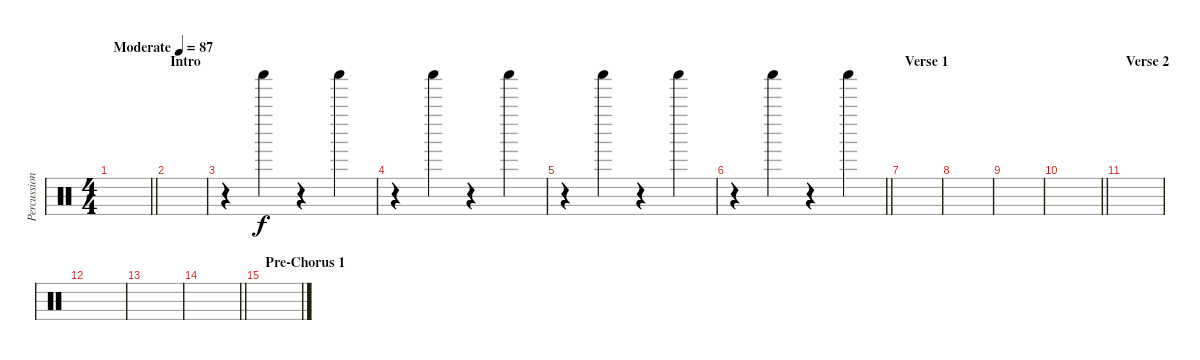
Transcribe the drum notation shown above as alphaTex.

\track ("Percussion" "Percussion") {instrument percussion}
\staff {score}
\articulation defaults
\ts (4 4)
\tempo (87 "Moderate")
\clef neutral
\barLineRight lightlight
\ks c
|
\section ("" "Intro")
|
r.4 "Shaker (hit)".4 r.4 "Shaker (hit)".4 |
r.4 "Shaker (hit)".4 r.4 "Shaker (hit)".4 |
r.4 "Shaker (hit)".4 r.4 "Shaker (hit)".4 |
\barLineRight lightlight
r.4 "Shaker (hit)".4 r.4 "Shaker (hit)".4 |
\section ("" "Verse 1")
|
|
|
\barLineRight lightlight
|
\section ("" "Verse 2")
|
|
|
\barLineRight lightlight
|
\section ("" "Pre-Chorus 1")
